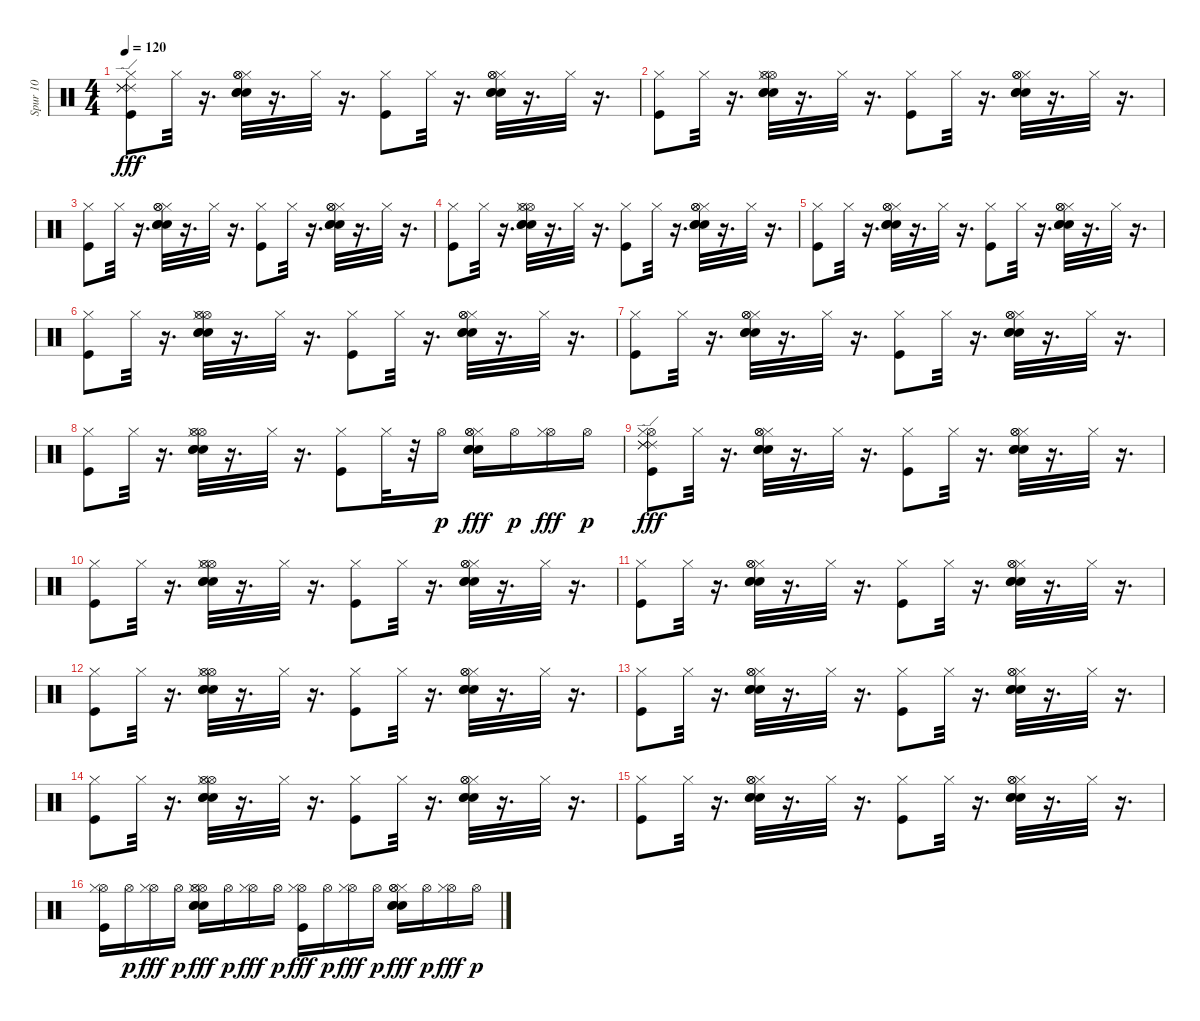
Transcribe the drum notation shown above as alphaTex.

\track ("Spur 10" "Spur 10") {instrument percussion}
\staff {score}
\articulation defaults
\ts (4 4)
\tempo 120
\clef neutral
\ks c
("Ride (edge) 2" "Ride (edge) 2" "Ride (edge) 2" "Kick (hit)" "Hi-Hat (closed)").8{dy fff} "Hi-Hat (closed)".32 r.16{d} ("Snare (hit) 2" "Snare (hit) 2" "Hi-Hat (closed)" "Snare (hit) 2" "Hi-Hat (open)" "Hi-Hat (open)").32 r.16{d} "Hi-Hat (closed)".32 r.16{d} ("Hi-Hat (closed)" "Kick (hit)").8 "Hi-Hat (closed)".32 r.16{d} ("Hi-Hat (closed)" "Snare (hit) 2" "Hi-Hat (open)" "Hi-Hat (open)" "Snare (hit) 2" "Snare (hit) 2").32 r.16{d} "Hi-Hat (closed)".32 r.16{d} |
("Hi-Hat (closed)" "Kick (hit)").8 "Hi-Hat (closed)".32 r.16{d} ("Hi-Hat (open)" "Hi-Hat (closed)" "Snare (hit) 2" "Hi-Hat (open)" "Snare (hit) 2" "Snare (hit) 2").32 r.16{d} "Hi-Hat (closed)".32 r.16{d} ("Kick (hit)" "Hi-Hat (closed)").8 "Hi-Hat (closed)".32 r.16{d} ("Snare (hit) 2" "Hi-Hat (closed)" "Hi-Hat (open)" "Snare (hit) 2" "Hi-Hat (open)" "Snare (hit) 2").32 r.16{d} "Hi-Hat (closed)".32 r.16{d} |
("Kick (hit)" "Hi-Hat (closed)").8 "Hi-Hat (closed)".32 r.16{d} ("Snare (hit) 2" "Snare (hit) 2" "Hi-Hat (closed)" "Snare (hit) 2" "Hi-Hat (open)" "Hi-Hat (open)").32 r.16{d} "Hi-Hat (closed)".32 r.16{d} ("Hi-Hat (closed)" "Kick (hit)").8 "Hi-Hat (closed)".32 r.16{d} ("Hi-Hat (closed)" "Snare (hit) 2" "Hi-Hat (open)" "Hi-Hat (open)" "Snare (hit) 2" "Snare (hit) 2").32 r.16{d} "Hi-Hat (closed)".32 r.16{d} |
("Hi-Hat (closed)" "Kick (hit)").8 "Hi-Hat (closed)".32 r.16{d} ("Hi-Hat (open)" "Hi-Hat (closed)" "Snare (hit) 2" "Hi-Hat (open)" "Snare (hit) 2" "Snare (hit) 2").32 r.16{d} "Hi-Hat (closed)".32 r.16{d} ("Kick (hit)" "Hi-Hat (closed)").8 "Hi-Hat (closed)".32 r.16{d} ("Snare (hit) 2" "Hi-Hat (closed)" "Hi-Hat (open)" "Snare (hit) 2" "Hi-Hat (open)" "Snare (hit) 2").32 r.16{d} "Hi-Hat (closed)".32 r.16{d} |
("Kick (hit)" "Hi-Hat (closed)").8 "Hi-Hat (closed)".32 r.16{d} ("Snare (hit) 2" "Snare (hit) 2" "Hi-Hat (closed)" "Snare (hit) 2" "Hi-Hat (open)" "Hi-Hat (open)").32 r.16{d} "Hi-Hat (closed)".32 r.16{d} ("Hi-Hat (closed)" "Kick (hit)").8 "Hi-Hat (closed)".32 r.16{d} ("Hi-Hat (closed)" "Snare (hit) 2" "Hi-Hat (open)" "Hi-Hat (open)" "Snare (hit) 2" "Snare (hit) 2").32 r.16{d} "Hi-Hat (closed)".32 r.16{d} |
("Hi-Hat (closed)" "Kick (hit)").8 "Hi-Hat (closed)".32 r.16{d} ("Hi-Hat (open)" "Hi-Hat (closed)" "Snare (hit) 2" "Hi-Hat (open)" "Snare (hit) 2" "Snare (hit) 2").32 r.16{d} "Hi-Hat (closed)".32 r.16{d} ("Kick (hit)" "Hi-Hat (closed)").8 "Hi-Hat (closed)".32 r.16{d} ("Snare (hit) 2" "Hi-Hat (closed)" "Hi-Hat (open)" "Snare (hit) 2" "Hi-Hat (open)" "Snare (hit) 2").32 r.16{d} "Hi-Hat (closed)".32 r.16{d} |
("Kick (hit)" "Hi-Hat (closed)").8 "Hi-Hat (closed)".32 r.16{d} ("Snare (hit) 2" "Snare (hit) 2" "Hi-Hat (closed)" "Snare (hit) 2" "Hi-Hat (open)" "Hi-Hat (open)").32 r.16{d} "Hi-Hat (closed)".32 r.16{d} ("Hi-Hat (closed)" "Kick (hit)").8 "Hi-Hat (closed)".32 r.16{d} ("Hi-Hat (closed)" "Snare (hit) 2" "Hi-Hat (open)" "Hi-Hat (open)" "Snare (hit) 2" "Snare (hit) 2").32 r.16{d} "Hi-Hat (closed)".32 r.16{d} |
("Hi-Hat (closed)" "Kick (hit)").8 "Hi-Hat (closed)".32 r.16{d} ("Hi-Hat (open)" "Hi-Hat (closed)" "Snare (hit) 2" "Hi-Hat (open)" "Snare (hit) 2" "Snare (hit) 2").32 r.16{d} "Hi-Hat (closed)".32 r.16{d} ("Kick (hit)" "Hi-Hat (closed)").8 "Hi-Hat (closed)".32 r.32 "Hi-Hat (open)".16{dy p} ("Snare (hit) 2" "Hi-Hat (closed)" "Hi-Hat (open)" "Snare (hit) 2" "Hi-Hat (open)" "Snare (hit) 2").16{dy fff} "Hi-Hat (open)".16{dy p} ("Hi-Hat (open)" "Hi-Hat (closed)").16{dy fff} "Hi-Hat (open)".16{dy p} |
("Ride (edge) 2" "Ride (edge) 2" "Ride (edge) 2" "Hi-Hat (open)" "Kick (hit)" "Hi-Hat (closed)").8{dy fff} "Hi-Hat (closed)".32 r.16{d} ("Snare (hit) 2" "Snare (hit) 2" "Hi-Hat (closed)" "Snare (hit) 2" "Hi-Hat (open)" "Hi-Hat (open)").32 r.16{d} "Hi-Hat (closed)".32 r.16{d} ("Hi-Hat (closed)" "Kick (hit)").8 "Hi-Hat (closed)".32 r.16{d} ("Hi-Hat (closed)" "Snare (hit) 2" "Hi-Hat (open)" "Hi-Hat (open)" "Snare (hit) 2" "Snare (hit) 2").32 r.16{d} "Hi-Hat (closed)".32 r.16{d} |
("Hi-Hat (closed)" "Kick (hit)").8 "Hi-Hat (closed)".32 r.16{d} ("Hi-Hat (open)" "Hi-Hat (closed)" "Snare (hit) 2" "Hi-Hat (open)" "Snare (hit) 2" "Snare (hit) 2").32 r.16{d} "Hi-Hat (closed)".32 r.16{d} ("Kick (hit)" "Hi-Hat (closed)").8 "Hi-Hat (closed)".32 r.16{d} ("Snare (hit) 2" "Hi-Hat (closed)" "Hi-Hat (open)" "Snare (hit) 2" "Hi-Hat (open)" "Snare (hit) 2").32 r.16{d} "Hi-Hat (closed)".32 r.16{d} |
("Kick (hit)" "Hi-Hat (closed)").8 "Hi-Hat (closed)".32 r.16{d} ("Snare (hit) 2" "Snare (hit) 2" "Hi-Hat (closed)" "Snare (hit) 2" "Hi-Hat (open)" "Hi-Hat (open)").32 r.16{d} "Hi-Hat (closed)".32 r.16{d} ("Hi-Hat (closed)" "Kick (hit)").8 "Hi-Hat (closed)".32 r.16{d} ("Hi-Hat (closed)" "Snare (hit) 2" "Hi-Hat (open)" "Hi-Hat (open)" "Snare (hit) 2" "Snare (hit) 2").32 r.16{d} "Hi-Hat (closed)".32 r.16{d} |
("Hi-Hat (closed)" "Kick (hit)").8 "Hi-Hat (closed)".32 r.16{d} ("Hi-Hat (open)" "Hi-Hat (closed)" "Snare (hit) 2" "Hi-Hat (open)" "Snare (hit) 2" "Snare (hit) 2").32 r.16{d} "Hi-Hat (closed)".32 r.16{d} ("Kick (hit)" "Hi-Hat (closed)").8 "Hi-Hat (closed)".32 r.16{d} ("Snare (hit) 2" "Hi-Hat (closed)" "Hi-Hat (open)" "Snare (hit) 2" "Hi-Hat (open)" "Snare (hit) 2").32 r.16{d} "Hi-Hat (closed)".32 r.16{d} |
("Kick (hit)" "Hi-Hat (closed)").8 "Hi-Hat (closed)".32 r.16{d} ("Snare (hit) 2" "Snare (hit) 2" "Hi-Hat (closed)" "Snare (hit) 2" "Hi-Hat (open)" "Hi-Hat (open)").32 r.16{d} "Hi-Hat (closed)".32 r.16{d} ("Hi-Hat (closed)" "Kick (hit)").8 "Hi-Hat (closed)".32 r.16{d} ("Hi-Hat (closed)" "Snare (hit) 2" "Hi-Hat (open)" "Hi-Hat (open)" "Snare (hit) 2" "Snare (hit) 2").32 r.16{d} "Hi-Hat (closed)".32 r.16{d} |
("Hi-Hat (closed)" "Kick (hit)").8 "Hi-Hat (closed)".32 r.16{d} ("Hi-Hat (open)" "Hi-Hat (closed)" "Snare (hit) 2" "Hi-Hat (open)" "Snare (hit) 2" "Snare (hit) 2").32 r.16{d} "Hi-Hat (closed)".32 r.16{d} ("Kick (hit)" "Hi-Hat (closed)").8 "Hi-Hat (closed)".32 r.16{d} ("Snare (hit) 2" "Hi-Hat (closed)" "Hi-Hat (open)" "Snare (hit) 2" "Hi-Hat (open)" "Snare (hit) 2").32 r.16{d} "Hi-Hat (closed)".32 r.16{d} |
("Kick (hit)" "Hi-Hat (closed)").8 "Hi-Hat (closed)".32 r.16{d} ("Snare (hit) 2" "Snare (hit) 2" "Hi-Hat (closed)" "Snare (hit) 2" "Hi-Hat (open)" "Hi-Hat (open)").32 r.16{d} "Hi-Hat (closed)".32 r.16{d} ("Hi-Hat (closed)" "Kick (hit)").8 "Hi-Hat (closed)".32 r.16{d} ("Hi-Hat (closed)" "Snare (hit) 2" "Hi-Hat (open)" "Hi-Hat (open)" "Snare (hit) 2" "Snare (hit) 2").32 r.16{d} "Hi-Hat (closed)".32 r.16{d} |
("Hi-Hat (open)" "Hi-Hat (closed)" "Kick (hit)").16 "Hi-Hat (open)".16{dy p} ("Hi-Hat (open)" "Hi-Hat (closed)").16{dy fff} "Hi-Hat (open)".16{dy p} ("Hi-Hat (open)" "Hi-Hat (closed)" "Snare (hit) 2" "Hi-Hat (open)" "Snare (hit) 2" "Snare (hit) 2").16{dy fff} "Hi-Hat (open)".16{dy p} ("Hi-Hat (open)" "Hi-Hat (closed)").16{dy fff} "Hi-Hat (open)".16{dy p} ("Hi-Hat (open)" "Kick (hit)" "Hi-Hat (closed)").16{dy fff} "Hi-Hat (open)".16{dy p} ("Hi-Hat (open)" "Hi-Hat (closed)").16{dy fff} "Hi-Hat (open)".16{dy p} ("Snare (hit) 2" "Hi-Hat (closed)" "Hi-Hat (open)" "Snare (hit) 2" "Hi-Hat (open)" "Snare (hit) 2").16{dy fff} "Hi-Hat (open)".16{dy p} ("Hi-Hat (open)" "Hi-Hat (closed)").16{dy fff} "Hi-Hat (open)".16{dy p}
